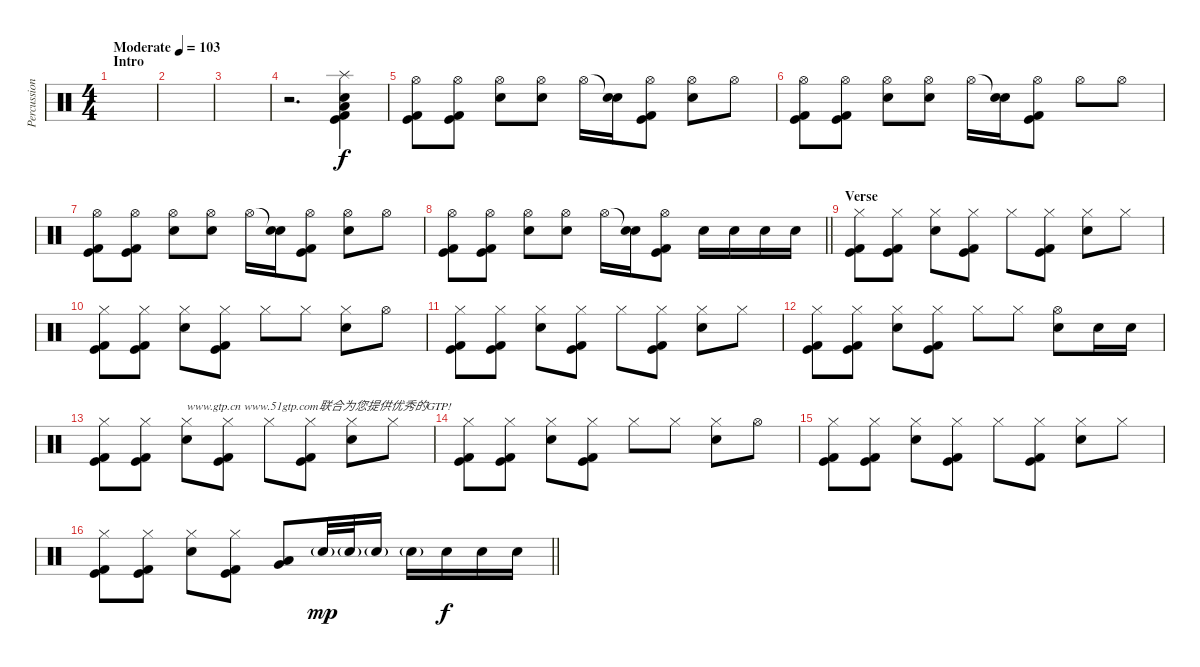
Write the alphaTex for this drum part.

\track ("Percussions" "Percussion") {instrument percussion}
\staff {score}
\articulation defaults
\ts (4 4)
\section ("" "Intro")
\tempo (103 "Moderate")
\clef neutral
\ks c
|
|
|
r.2{d} ("Splash (hit)" "Low Tom (hit)" "Snare (hit) 2" "Kick (hit) 2" "Kick (hit)").4 |
("Hi-Hat (open)" "Kick (hit) 2" "Kick (hit)").8 ("Hi-Hat (open)" "Kick (hit) 2" "Kick (hit)").8 ("Hi-Hat (open)" "Snare (hit) 2").8 ("Hi-Hat (open)" "Snare (hit) 2").8 "Hi-Hat (open)".16 ("Snare (hit)"{t} "Snare (hit) 2").16 ("Hi-Hat (open)" "Kick (hit) 2" "Kick (hit)").8 ("Hi-Hat (open)" "Snare (hit) 2").8 "Hi-Hat (open)".8 |
("Hi-Hat (open)" "Kick (hit) 2" "Kick (hit)").8 ("Hi-Hat (open)" "Kick (hit) 2" "Kick (hit)").8 ("Hi-Hat (open)" "Snare (hit) 2").8 ("Hi-Hat (open)" "Snare (hit) 2").8 "Hi-Hat (open)".16 ("Snare (hit)"{t} "Snare (hit) 2").16 ("Hi-Hat (open)" "Kick (hit) 2" "Kick (hit)").8 "Hi-Hat (open)".8 "Hi-Hat (open)".8 |
("Hi-Hat (open)" "Kick (hit) 2" "Kick (hit)").8 ("Hi-Hat (open)" "Kick (hit) 2" "Kick (hit)").8 ("Hi-Hat (open)" "Snare (hit) 2").8 ("Hi-Hat (open)" "Snare (hit) 2").8 "Hi-Hat (open)".16 ("Snare (hit)"{t} "Snare (hit) 2").16 ("Hi-Hat (open)" "Kick (hit) 2" "Kick (hit)").8 ("Hi-Hat (open)" "Snare (hit) 2").8 "Hi-Hat (open)".8 |
\barLineRight lightlight
("Hi-Hat (open)" "Kick (hit) 2" "Kick (hit)").8 ("Hi-Hat (open)" "Kick (hit) 2" "Kick (hit)").8 ("Hi-Hat (open)" "Snare (hit) 2").8 ("Hi-Hat (open)" "Snare (hit) 2").8 "Hi-Hat (open)".16 ("Snare (hit)"{t} "Snare (hit) 2").16 ("Hi-Hat (open)" "Kick (hit) 2" "Kick (hit)").8 "Snare (hit) 2".16 "Snare (hit) 2".16 "Snare (hit) 2".16 "Snare (hit) 2".16 |
\section ("" "Verse")
("Hi-Hat (closed)" "Kick (hit) 2" "Kick (hit)").8 ("Hi-Hat (closed)" "Kick (hit) 2" "Kick (hit)").8 ("Hi-Hat (closed)" "Snare (hit) 2").8 ("Hi-Hat (closed)" "Kick (hit) 2" "Kick (hit)").8 "Hi-Hat (closed)".8 ("Hi-Hat (closed)" "Kick (hit) 2" "Kick (hit)").8 ("Hi-Hat (closed)" "Snare (hit) 2").8 "Hi-Hat (closed)".8 |
("Hi-Hat (closed)" "Kick (hit) 2" "Kick (hit)").8 ("Hi-Hat (closed)" "Kick (hit) 2" "Kick (hit)").8 ("Hi-Hat (closed)" "Snare (hit) 2").8 ("Hi-Hat (closed)" "Kick (hit) 2" "Kick (hit)").8 "Hi-Hat (closed)".8 "Hi-Hat (closed)".8 ("Hi-Hat (closed)" "Snare (hit) 2").8 "Hi-Hat (open)".8 |
("Hi-Hat (closed)" "Kick (hit) 2" "Kick (hit)").8 ("Hi-Hat (closed)" "Kick (hit) 2" "Kick (hit)").8 ("Hi-Hat (closed)" "Snare (hit) 2").8 ("Hi-Hat (closed)" "Kick (hit) 2" "Kick (hit)").8 "Hi-Hat (closed)".8 ("Hi-Hat (closed)" "Kick (hit) 2" "Kick (hit)").8 ("Hi-Hat (closed)" "Snare (hit) 2").8 "Hi-Hat (closed)".8 |
("Hi-Hat (closed)" "Kick (hit) 2" "Kick (hit)").8 ("Hi-Hat (closed)" "Kick (hit) 2" "Kick (hit)").8 ("Hi-Hat (closed)" "Snare (hit) 2").8 ("Hi-Hat (closed)" "Kick (hit) 2" "Kick (hit)").8 "Hi-Hat (closed)".8 "Hi-Hat (closed)".8 ("Hi-Hat (open)" "Snare (hit) 2").8 "Snare (hit) 2".16 "Snare (hit) 2".16 |
("Hi-Hat (closed)" "Kick (hit) 2" "Kick (hit)").8 ("Hi-Hat (closed)" "Kick (hit) 2" "Kick (hit)").8 ("Hi-Hat (closed)" "Snare (hit) 2").8{txt "www.gtp.cn www.51gtp.com联合为您提供优秀的GTP!"} ("Hi-Hat (closed)" "Kick (hit) 2" "Kick (hit)").8 "Hi-Hat (closed)".8 ("Hi-Hat (closed)" "Kick (hit) 2" "Kick (hit)").8 ("Hi-Hat (closed)" "Snare (hit) 2").8 "Hi-Hat (closed)".8 |
("Hi-Hat (closed)" "Kick (hit) 2" "Kick (hit)").8 ("Hi-Hat (closed)" "Kick (hit) 2" "Kick (hit)").8 ("Hi-Hat (closed)" "Snare (hit) 2").8 ("Hi-Hat (closed)" "Kick (hit) 2" "Kick (hit)").8 "Hi-Hat (closed)".8 "Hi-Hat (closed)".8 ("Hi-Hat (closed)" "Snare (hit) 2").8 "Hi-Hat (open)".8 |
("Hi-Hat (closed)" "Kick (hit) 2" "Kick (hit)").8 ("Hi-Hat (closed)" "Kick (hit) 2" "Kick (hit)").8 ("Hi-Hat (closed)" "Snare (hit) 2").8 ("Hi-Hat (closed)" "Kick (hit) 2" "Kick (hit)").8 "Hi-Hat (closed)".8 ("Hi-Hat (closed)" "Kick (hit) 2" "Kick (hit)").8 ("Hi-Hat (closed)" "Snare (hit) 2").8 "Hi-Hat (closed)".8 |
\barLineRight lightlight
("Hi-Hat (closed)" "Kick (hit) 2" "Kick (hit)").8 ("Hi-Hat (closed)" "Kick (hit) 2" "Kick (hit)").8 ("Hi-Hat (closed)" "Snare (hit) 2").8 ("Hi-Hat (closed)" "Kick (hit) 2" "Kick (hit)").8 ("Very Low Tom (hit)" "Low Floor Tom (hit)").8 "Snare (hit) 2"{g}.32{dy mp} "Snare (hit) 2"{g}.32 "Snare (hit) 2"{g}.16 "Snare (hit) 2"{g}.16 "Snare (hit) 2".16{dy f} "Snare (hit) 2".16 "Snare (hit) 2".16
